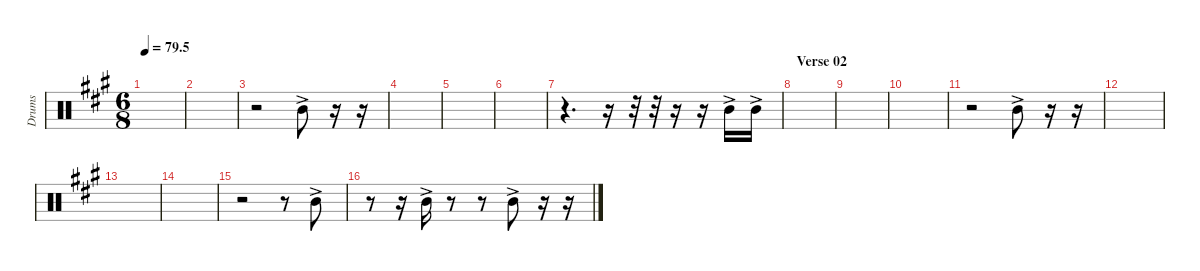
\defaultSystemsLayout 4
\hideDynamics
\bracketExtendMode nobrackets
\otherSystemsTrackNameOrientation horizontal
\track ("Tom 02" "Drums") {instrument percussion}
\staff {score}
\articulation defaults
\ts (6 8)
\tempo
79.5
\accidentals auto
\clef neutral
\ottava regular
\simile none
\scale
0.333333
\ks a
|
\scale
0.333333 |
\scale
0.333333 r.2 "Mid Tom (hit)"{ac acc forcenatural}.8 r.16 r.16 |
\scale
0.333333 |
\scale
0.333333 |
\scale
0.333333 |
\scale
0.333333 r.4{d} r.16 r.32 r.32 r.16 r.16 "Mid Tom (hit)"{ac acc forcenatural}.16 "Mid Tom (hit)"{ac acc forcenatural}.16 |
\section ("" "Verse 02")
\scale
0.333333 |
\scale
0.333333 |
\scale
0.333333 |
\scale
0.333333 r.2 "Mid Tom (hit)"{ac acc forcenatural}.8 r.16 r.16 |
\scale
0.333333 |
\scale
0.333333 |
\scale
0.333333 |
\scale
0.333333 r.2 r.8 "Mid Tom (hit)"{ac acc forcenatural}.8 |
\scale
0.333333 r.8 r.16 "Mid Tom (hit)"{ac acc forcenatural}.16 r.8 r.8 "Mid Tom (hit)"{ac acc forcenatural}.8 r.16 r.16
